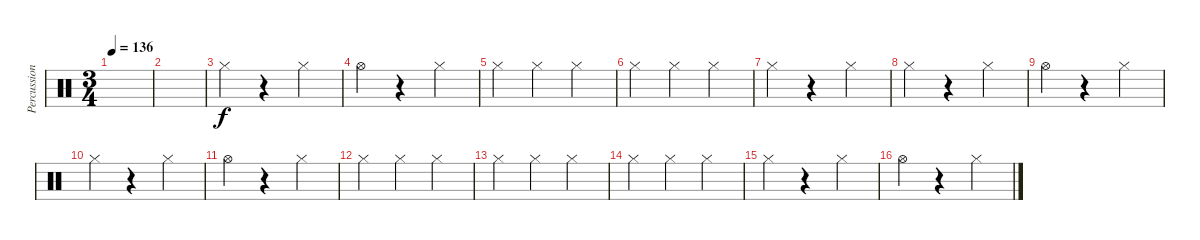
\track ("Percussion" "Percussion") {instrument percussion}
\staff {score}
\articulation defaults
\ts (3 4)
\tempo 136
\clef neutral
\ks c
|
|
"Hi-Hat (closed)".4 r.4 "Hi-Hat (closed)".4 |
"Hi-Hat (open)".4 r.4 "Hi-Hat (closed)".4 |
"Hi-Hat (closed)".4 "Hi-Hat (closed)".4 "Hi-Hat (closed)".4 |
"Hi-Hat (closed)".4 "Hi-Hat (closed)".4 "Hi-Hat (closed)".4 |
"Hi-Hat (closed)".4 r.4 "Hi-Hat (closed)".4 |
"Hi-Hat (closed)".4 r.4 "Hi-Hat (closed)".4 |
"Hi-Hat (open)".4 r.4 "Hi-Hat (closed)".4 |
"Hi-Hat (closed)".4 r.4 "Hi-Hat (closed)".4 |
"Hi-Hat (open)".4 r.4 "Hi-Hat (closed)".4 |
"Hi-Hat (closed)".4 "Hi-Hat (closed)".4 "Hi-Hat (closed)".4 |
"Hi-Hat (closed)".4 "Hi-Hat (closed)".4 "Hi-Hat (closed)".4 |
"Hi-Hat (closed)".4 "Hi-Hat (closed)".4 "Hi-Hat (closed)".4 |
"Hi-Hat (closed)".4 r.4 "Hi-Hat (closed)".4 |
"Hi-Hat (open)".4 r.4 "Hi-Hat (closed)".4
